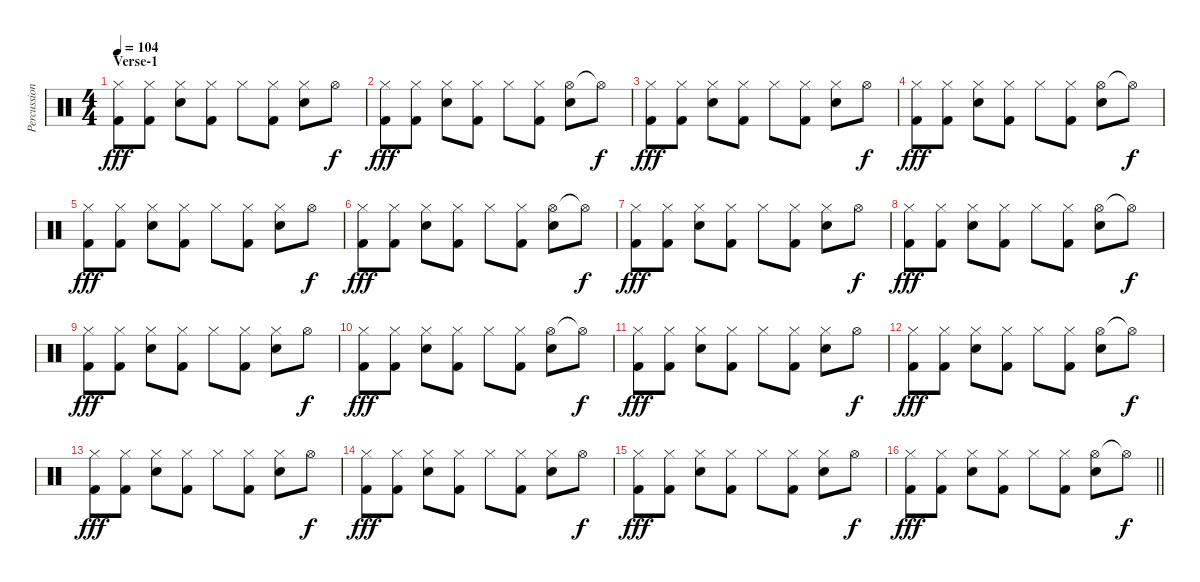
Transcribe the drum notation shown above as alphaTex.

\track ("Percussion" "Percussion") {instrument percussion}
\staff {score}
\articulation defaults
\ts (4 4)
\section ("" "Verse-1")
\tempo 104
\clef neutral
\ks c
("Hi-Hat (closed)" "Kick (hit) 2").8{dy fff} ("Hi-Hat (closed)" "Kick (hit) 2").8 ("Hi-Hat (closed)" "Electric Snare (hit)").8 ("Hi-Hat (closed)" "Kick (hit) 2").8 "Hi-Hat (closed)".8 ("Hi-Hat (closed)" "Kick (hit) 2").8 ("Hi-Hat (closed)" "Electric Snare (hit)").8 "Hi-Hat (open)".8{dy f} |
("Hi-Hat (closed)" "Kick (hit) 2").8{dy fff} ("Hi-Hat (closed)" "Kick (hit) 2").8 ("Hi-Hat (closed)" "Electric Snare (hit)").8 ("Hi-Hat (closed)" "Kick (hit) 2").8 "Hi-Hat (closed)".8 ("Hi-Hat (closed)" "Kick (hit) 2").8 ("Hi-Hat (open)" "Electric Snare (hit)").8 "Hi-Hat (open)"{t}.8{dy f} |
("Hi-Hat (closed)" "Kick (hit) 2").8{dy fff} ("Hi-Hat (closed)" "Kick (hit) 2").8 ("Hi-Hat (closed)" "Electric Snare (hit)").8 ("Hi-Hat (closed)" "Kick (hit) 2").8 "Hi-Hat (closed)".8 ("Hi-Hat (closed)" "Kick (hit) 2").8 ("Hi-Hat (closed)" "Electric Snare (hit)").8 "Hi-Hat (open)".8{dy f} |
("Hi-Hat (closed)" "Kick (hit) 2").8{dy fff} ("Hi-Hat (closed)" "Kick (hit) 2").8 ("Hi-Hat (closed)" "Electric Snare (hit)").8 ("Hi-Hat (closed)" "Kick (hit) 2").8 "Hi-Hat (closed)".8 ("Hi-Hat (closed)" "Kick (hit) 2").8 ("Hi-Hat (open)" "Electric Snare (hit)").8 "Hi-Hat (open)"{t}.8{dy f} |
("Hi-Hat (closed)" "Kick (hit) 2").8{dy fff} ("Hi-Hat (closed)" "Kick (hit) 2").8 ("Hi-Hat (closed)" "Electric Snare (hit)").8 ("Hi-Hat (closed)" "Kick (hit) 2").8 "Hi-Hat (closed)".8 ("Hi-Hat (closed)" "Kick (hit) 2").8 ("Hi-Hat (closed)" "Electric Snare (hit)").8 "Hi-Hat (open)".8{dy f} |
("Hi-Hat (closed)" "Kick (hit) 2").8{dy fff} ("Hi-Hat (closed)" "Kick (hit) 2").8 ("Hi-Hat (closed)" "Electric Snare (hit)").8 ("Hi-Hat (closed)" "Kick (hit) 2").8 "Hi-Hat (closed)".8 ("Hi-Hat (closed)" "Kick (hit) 2").8 ("Hi-Hat (open)" "Electric Snare (hit)").8 "Hi-Hat (open)"{t}.8{dy f} |
("Hi-Hat (closed)" "Kick (hit) 2").8{dy fff} ("Hi-Hat (closed)" "Kick (hit) 2").8 ("Hi-Hat (closed)" "Electric Snare (hit)").8 ("Hi-Hat (closed)" "Kick (hit) 2").8 "Hi-Hat (closed)".8 ("Hi-Hat (closed)" "Kick (hit) 2").8 ("Hi-Hat (closed)" "Electric Snare (hit)").8 "Hi-Hat (open)".8{dy f} |
("Hi-Hat (closed)" "Kick (hit) 2").8{dy fff} ("Hi-Hat (closed)" "Kick (hit) 2").8 ("Hi-Hat (closed)" "Electric Snare (hit)").8 ("Hi-Hat (closed)" "Kick (hit) 2").8 "Hi-Hat (closed)".8 ("Hi-Hat (closed)" "Kick (hit) 2").8 ("Hi-Hat (open)" "Electric Snare (hit)").8 "Hi-Hat (open)"{t}.8{dy f} |
("Hi-Hat (closed)" "Kick (hit) 2").8{dy fff} ("Hi-Hat (closed)" "Kick (hit) 2").8 ("Hi-Hat (closed)" "Electric Snare (hit)").8 ("Hi-Hat (closed)" "Kick (hit) 2").8 "Hi-Hat (closed)".8 ("Hi-Hat (closed)" "Kick (hit) 2").8 ("Hi-Hat (closed)" "Electric Snare (hit)").8 "Hi-Hat (open)".8{dy f} |
("Hi-Hat (closed)" "Kick (hit) 2").8{dy fff} ("Hi-Hat (closed)" "Kick (hit) 2").8 ("Hi-Hat (closed)" "Electric Snare (hit)").8 ("Hi-Hat (closed)" "Kick (hit) 2").8 "Hi-Hat (closed)".8 ("Hi-Hat (closed)" "Kick (hit) 2").8 ("Hi-Hat (open)" "Electric Snare (hit)").8 "Hi-Hat (open)"{t}.8{dy f} |
("Hi-Hat (closed)" "Kick (hit) 2").8{dy fff} ("Hi-Hat (closed)" "Kick (hit) 2").8 ("Hi-Hat (closed)" "Electric Snare (hit)").8 ("Hi-Hat (closed)" "Kick (hit) 2").8 "Hi-Hat (closed)".8 ("Hi-Hat (closed)" "Kick (hit) 2").8 ("Hi-Hat (closed)" "Electric Snare (hit)").8 "Hi-Hat (open)".8{dy f} |
("Hi-Hat (closed)" "Kick (hit) 2").8{dy fff} ("Hi-Hat (closed)" "Kick (hit) 2").8 ("Hi-Hat (closed)" "Electric Snare (hit)").8 ("Hi-Hat (closed)" "Kick (hit) 2").8 "Hi-Hat (closed)".8 ("Hi-Hat (closed)" "Kick (hit) 2").8 ("Hi-Hat (open)" "Electric Snare (hit)").8 "Hi-Hat (open)"{t}.8{dy f} |
("Hi-Hat (closed)" "Kick (hit) 2").8{dy fff} ("Hi-Hat (closed)" "Kick (hit) 2").8 ("Hi-Hat (closed)" "Electric Snare (hit)").8 ("Hi-Hat (closed)" "Kick (hit) 2").8 "Hi-Hat (closed)".8 ("Hi-Hat (closed)" "Kick (hit) 2").8 ("Hi-Hat (closed)" "Electric Snare (hit)").8 "Hi-Hat (open)".8{dy f} |
("Hi-Hat (closed)" "Kick (hit) 2").8{dy fff} ("Hi-Hat (closed)" "Kick (hit) 2").8 ("Hi-Hat (closed)" "Electric Snare (hit)").8 ("Hi-Hat (closed)" "Kick (hit) 2").8 "Hi-Hat (closed)".8 ("Hi-Hat (closed)" "Kick (hit) 2").8 ("Hi-Hat (closed)" "Electric Snare (hit)").8 "Hi-Hat (open)".8{dy f} |
("Hi-Hat (closed)" "Kick (hit) 2").8{dy fff} ("Hi-Hat (closed)" "Kick (hit) 2").8 ("Hi-Hat (closed)" "Electric Snare (hit)").8 ("Hi-Hat (closed)" "Kick (hit) 2").8 "Hi-Hat (closed)".8 ("Hi-Hat (closed)" "Kick (hit) 2").8 ("Hi-Hat (closed)" "Electric Snare (hit)").8 "Hi-Hat (open)".8{dy f} |
\barLineRight lightlight
("Hi-Hat (closed)" "Kick (hit) 2").8{dy fff} ("Hi-Hat (closed)" "Kick (hit) 2").8 ("Hi-Hat (closed)" "Electric Snare (hit)").8 ("Hi-Hat (closed)" "Kick (hit) 2").8 "Hi-Hat (closed)".8 ("Hi-Hat (closed)" "Kick (hit) 2").8 ("Hi-Hat (open)" "Electric Snare (hit)").8 "Hi-Hat (open)"{t}.8{dy f}
